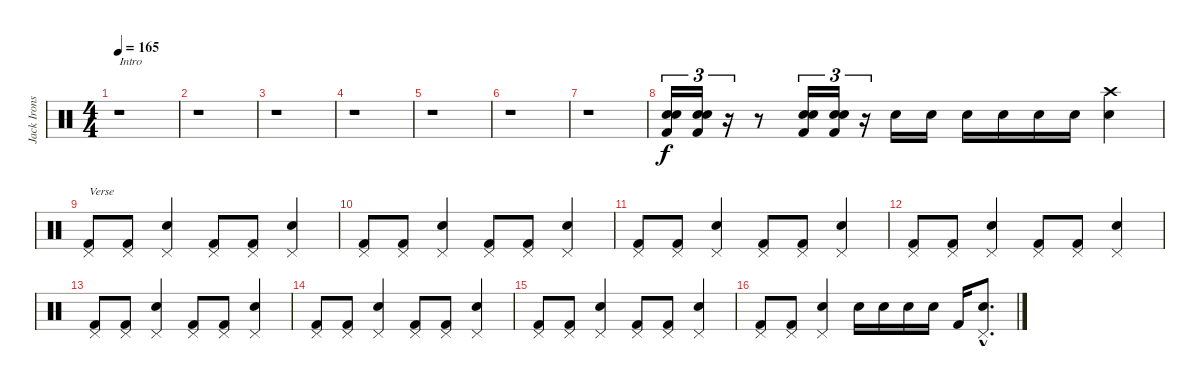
\track ("Jack Irons" "Jack Irons") {instrument percussion}
\staff {score}
\articulation defaults
\ts (4 4)
\tempo 165
\clef neutral
\ks c
r.1{txt "Intro" dy f} |
r.1 |
r.1 |
r.1 |
r.1 |
r.1 |
r.1 |
("Snare (hit) 2" "Snare (hit) 2" "Kick (hit) 2").16{tu (3 2)} ("Snare (hit) 2" "Snare (hit) 2" "Kick (hit) 2").16{tu (3 2)} r.16{tu (3 2)} r.8 ("Snare (hit) 2" "Snare (hit) 2" "Kick (hit) 2").16{tu (3 2)} ("Snare (hit) 2" "Snare (hit) 2" "Kick (hit) 2").16{tu (3 2)} r.16{tu (3 2)} "Snare (hit) 2".16 "Snare (hit) 2".16 "Snare (hit) 2".16 "Snare (hit) 2".16 "Snare (hit) 2".16 "Snare (hit) 2".16 ("Crash high (hit)" "Snare (hit) 2").4 |
("Pedal Hi-Hat (hit)" "Kick (hit) 2").8{txt "Verse"} ("Pedal Hi-Hat (hit)" "Kick (hit) 2").8 ("Pedal Hi-Hat (hit)" "Snare (hit) 2").4 ("Pedal Hi-Hat (hit)" "Kick (hit) 2").8 ("Pedal Hi-Hat (hit)" "Kick (hit) 2").8 ("Pedal Hi-Hat (hit)" "Snare (hit) 2").4 |
("Pedal Hi-Hat (hit)" "Kick (hit) 2").8 ("Pedal Hi-Hat (hit)" "Kick (hit) 2").8 ("Pedal Hi-Hat (hit)" "Snare (hit) 2").4 ("Pedal Hi-Hat (hit)" "Kick (hit) 2").8 ("Pedal Hi-Hat (hit)" "Kick (hit) 2").8 ("Pedal Hi-Hat (hit)" "Snare (hit) 2").4 |
("Pedal Hi-Hat (hit)" "Kick (hit) 2").8 ("Pedal Hi-Hat (hit)" "Kick (hit) 2").8 ("Pedal Hi-Hat (hit)" "Snare (hit) 2").4 ("Pedal Hi-Hat (hit)" "Kick (hit) 2").8 ("Pedal Hi-Hat (hit)" "Kick (hit) 2").8 ("Pedal Hi-Hat (hit)" "Snare (hit) 2").4 |
("Pedal Hi-Hat (hit)" "Kick (hit) 2").8 ("Pedal Hi-Hat (hit)" "Kick (hit) 2").8 ("Pedal Hi-Hat (hit)" "Snare (hit) 2").4 ("Pedal Hi-Hat (hit)" "Kick (hit) 2").8 ("Pedal Hi-Hat (hit)" "Kick (hit) 2").8 ("Pedal Hi-Hat (hit)" "Snare (hit) 2").4 |
("Pedal Hi-Hat (hit)" "Kick (hit) 2").8 ("Pedal Hi-Hat (hit)" "Kick (hit) 2").8 ("Pedal Hi-Hat (hit)" "Snare (hit) 2").4 ("Pedal Hi-Hat (hit)" "Kick (hit) 2").8 ("Pedal Hi-Hat (hit)" "Kick (hit) 2").8 ("Pedal Hi-Hat (hit)" "Snare (hit) 2").4 |
("Pedal Hi-Hat (hit)" "Kick (hit) 2").8 ("Pedal Hi-Hat (hit)" "Kick (hit) 2").8 ("Pedal Hi-Hat (hit)" "Snare (hit) 2").4 ("Pedal Hi-Hat (hit)" "Kick (hit) 2").8 ("Pedal Hi-Hat (hit)" "Kick (hit) 2").8 ("Pedal Hi-Hat (hit)" "Snare (hit) 2").4 |
("Pedal Hi-Hat (hit)" "Kick (hit) 2").8 ("Pedal Hi-Hat (hit)" "Kick (hit) 2").8 ("Pedal Hi-Hat (hit)" "Snare (hit) 2").4 ("Pedal Hi-Hat (hit)" "Kick (hit) 2").8 ("Pedal Hi-Hat (hit)" "Kick (hit) 2").8 ("Pedal Hi-Hat (hit)" "Snare (hit) 2").4 |
("Pedal Hi-Hat (hit)" "Kick (hit) 2").8 ("Pedal Hi-Hat (hit)" "Kick (hit) 2").8 ("Pedal Hi-Hat (hit)" "Snare (hit) 2").4 "Snare (hit) 2".16 "Snare (hit) 2".16 "Snare (hit) 2".16 "Snare (hit) 2".16 "Kick (hit) 2".16 ("Pedal Hi-Hat (hit)"{hac} "Snare (hit) 2"{hac}).8{d}
